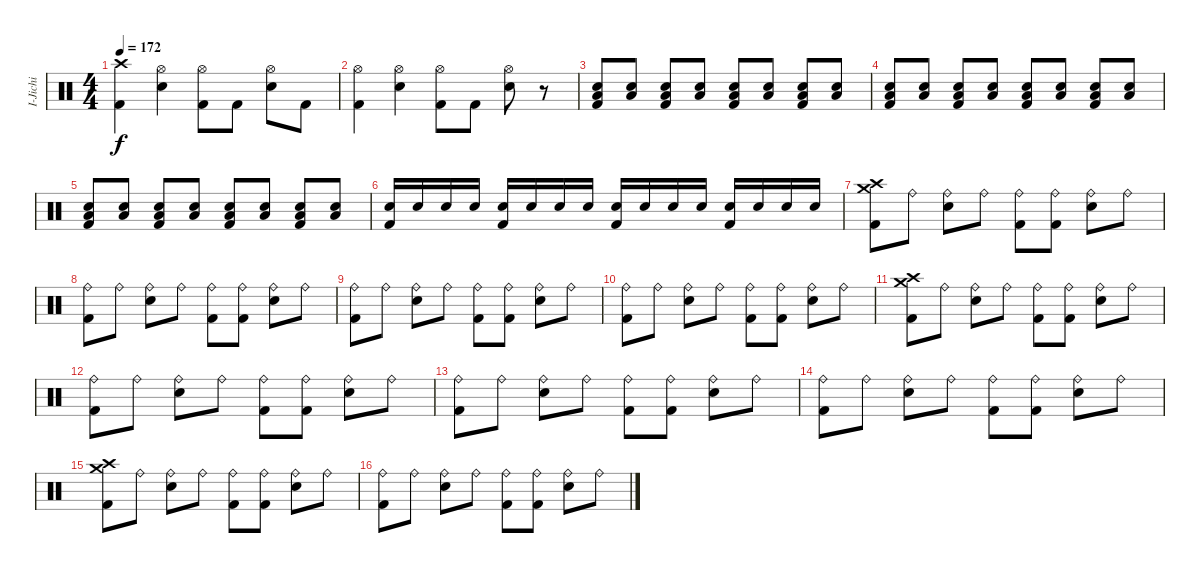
\track ("I-Jichi" "I-Jichi") {instrument percussion}
\staff {score}
\articulation defaults
\ts (4 4)
\tempo 172
\clef neutral
\ks c
("Crash high (hit)" "Kick (hit) 2").4{dy f} ("Hi-Hat (open)" "Electric Snare (hit)").4 ("Hi-Hat (open)" "Kick (hit) 2").8 "Kick (hit) 2".8 ("Hi-Hat (open)" "Electric Snare (hit)").8 "Kick (hit) 2".8 |
("Hi-Hat (open)" "Kick (hit) 2").4 ("Hi-Hat (open)" "Electric Snare (hit)").4 ("Hi-Hat (open)" "Kick (hit) 2").8 "Kick (hit) 2".8 ("Hi-Hat (open)" "Electric Snare (hit)").8 r.8{volume 9} |
("Low Floor Tom (hit)" "Electric Snare (hit)" "Kick (hit) 2").8{volume 13} ("Low Floor Tom (hit)" "Electric Snare (hit)").8 ("Low Floor Tom (hit)" "Electric Snare (hit)" "Kick (hit) 2").8 ("Low Floor Tom (hit)" "Electric Snare (hit)").8 ("Low Floor Tom (hit)" "Electric Snare (hit)" "Kick (hit) 2").8 ("Low Floor Tom (hit)" "Electric Snare (hit)").8 ("Low Floor Tom (hit)" "Electric Snare (hit)" "Kick (hit) 2").8 ("Low Floor Tom (hit)" "Electric Snare (hit)").8 |
("Low Floor Tom (hit)" "Electric Snare (hit)" "Kick (hit) 2").8 ("Low Floor Tom (hit)" "Electric Snare (hit)").8 ("Low Floor Tom (hit)" "Electric Snare (hit)" "Kick (hit) 2").8 ("Low Floor Tom (hit)" "Electric Snare (hit)").8 ("Low Floor Tom (hit)" "Electric Snare (hit)" "Kick (hit) 2").8 ("Low Floor Tom (hit)" "Electric Snare (hit)").8 ("Low Floor Tom (hit)" "Electric Snare (hit)" "Kick (hit) 2").8 ("Low Floor Tom (hit)" "Electric Snare (hit)").8 |
("Low Floor Tom (hit)" "Electric Snare (hit)" "Kick (hit) 2").8 ("Low Floor Tom (hit)" "Electric Snare (hit)").8 ("Low Floor Tom (hit)" "Electric Snare (hit)" "Kick (hit) 2").8 ("Low Floor Tom (hit)" "Electric Snare (hit)").8 ("Low Floor Tom (hit)" "Electric Snare (hit)" "Kick (hit) 2").8 ("Low Floor Tom (hit)" "Electric Snare (hit)").8 ("Low Floor Tom (hit)" "Electric Snare (hit)" "Kick (hit) 2").8 ("Low Floor Tom (hit)" "Electric Snare (hit)").8 |
("Electric Snare (hit)" "Kick (hit) 2").16 "Electric Snare (hit)".16 "Electric Snare (hit)".16 "Electric Snare (hit)".16 ("Electric Snare (hit)" "Kick (hit) 2").16 "Electric Snare (hit)".16 "Electric Snare (hit)".16 "Electric Snare (hit)".16 ("Electric Snare (hit)" "Kick (hit) 2").16 "Electric Snare (hit)".16 "Electric Snare (hit)".16 "Electric Snare (hit)".16 ("Electric Snare (hit)" "Kick (hit) 2").16 "Electric Snare (hit)".16 "Electric Snare (hit)".16 "Electric Snare (hit)".16 |
("Crash high (hit)" "Crash medium (hit)" "Kick (hit) 2").8 "Ride (bell)".8 ("Ride (bell)" "Electric Snare (hit)").8 "Ride (bell)".8 ("Ride (bell)" "Kick (hit) 2").8 ("Ride (bell)" "Kick (hit) 2").8 ("Ride (bell)" "Electric Snare (hit)").8 "Ride (bell)".8 |
("Ride (bell)" "Kick (hit) 2").8 "Ride (bell)".8 ("Ride (bell)" "Electric Snare (hit)").8 "Ride (bell)".8 ("Ride (bell)" "Kick (hit) 2").8 ("Ride (bell)" "Kick (hit) 2").8 ("Ride (bell)" "Electric Snare (hit)").8 "Ride (bell)".8 |
("Ride (bell)" "Kick (hit) 2").8 "Ride (bell)".8 ("Ride (bell)" "Electric Snare (hit)").8 "Ride (bell)".8 ("Ride (bell)" "Kick (hit) 2").8 ("Ride (bell)" "Kick (hit) 2").8 ("Ride (bell)" "Electric Snare (hit)").8 "Ride (bell)".8 |
("Ride (bell)" "Kick (hit) 2").8 "Ride (bell)".8 ("Ride (bell)" "Electric Snare (hit)").8 "Ride (bell)".8 ("Ride (bell)" "Kick (hit) 2").8 ("Ride (bell)" "Kick (hit) 2").8 ("Ride (bell)" "Electric Snare (hit)").8 "Ride (bell)".8 |
("Crash high (hit)" "Crash medium (hit)" "Kick (hit) 2").8 "Ride (bell)".8 ("Ride (bell)" "Electric Snare (hit)").8 "Ride (bell)".8 ("Ride (bell)" "Kick (hit) 2").8 ("Ride (bell)" "Kick (hit) 2").8 ("Ride (bell)" "Electric Snare (hit)").8 "Ride (bell)".8 |
("Ride (bell)" "Kick (hit) 2").8 "Ride (bell)".8 ("Ride (bell)" "Electric Snare (hit)").8 "Ride (bell)".8 ("Ride (bell)" "Kick (hit) 2").8 ("Ride (bell)" "Kick (hit) 2").8 ("Ride (bell)" "Electric Snare (hit)").8 "Ride (bell)".8 |
("Ride (bell)" "Kick (hit) 2").8 "Ride (bell)".8 ("Ride (bell)" "Electric Snare (hit)").8 "Ride (bell)".8 ("Ride (bell)" "Kick (hit) 2").8 ("Ride (bell)" "Kick (hit) 2").8 ("Ride (bell)" "Electric Snare (hit)").8 "Ride (bell)".8 |
("Ride (bell)" "Kick (hit) 2").8 "Ride (bell)".8 ("Ride (bell)" "Electric Snare (hit)").8 "Ride (bell)".8 ("Ride (bell)" "Kick (hit) 2").8 ("Ride (bell)" "Kick (hit) 2").8 ("Ride (bell)" "Electric Snare (hit)").8 "Ride (bell)".8 |
("Crash high (hit)" "Crash medium (hit)" "Kick (hit) 2").8 "Ride (bell)".8 ("Ride (bell)" "Electric Snare (hit)").8 "Ride (bell)".8 ("Ride (bell)" "Kick (hit) 2").8 ("Ride (bell)" "Kick (hit) 2").8 ("Ride (bell)" "Electric Snare (hit)").8 "Ride (bell)".8 |
("Ride (bell)" "Kick (hit) 2").8 "Ride (bell)".8 ("Ride (bell)" "Electric Snare (hit)").8 "Ride (bell)".8 ("Ride (bell)" "Kick (hit) 2").8 ("Ride (bell)" "Kick (hit) 2").8 ("Ride (bell)" "Electric Snare (hit)").8 "Ride (bell)".8
